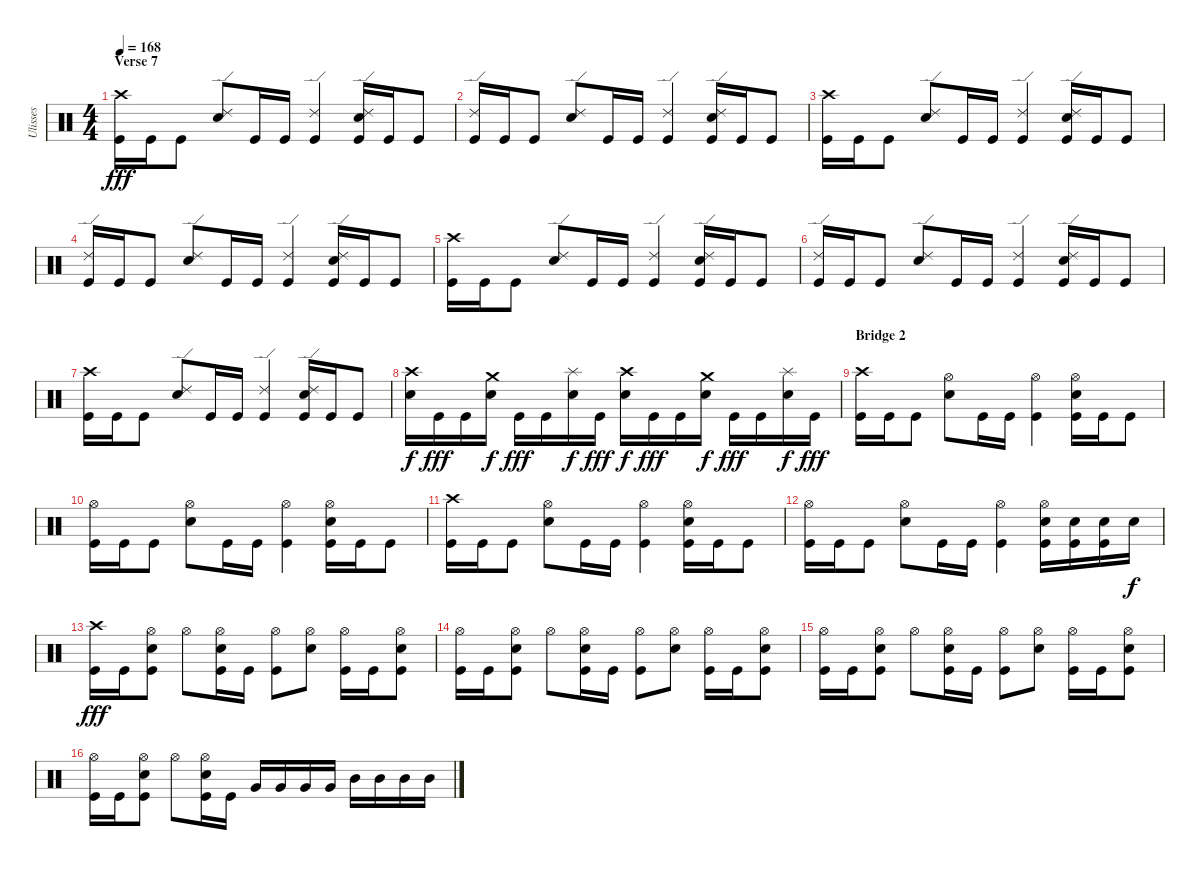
\track ("Ulisses" "Ulisses") {instrument percussion}
\staff {score}
\articulation defaults
\ts (4 4)
\section ("" "Verse 7")
\tempo 168
\clef neutral
\ks c
("Crash high (hit)" "Kick (hit)").16{dy fff} "Kick (hit)".16 "Kick (hit)".8 ("Ride (edge) 2" "Snare (hit) 2").8 "Kick (hit)".16 "Kick (hit)".16 ("Ride (edge) 2" "Kick (hit)").4 ("Ride (edge) 2" "Snare (hit) 2" "Kick (hit)").16 "Kick (hit)".16 "Kick (hit)".8 |
("Ride (edge) 2" "Kick (hit)").16 "Kick (hit)".16 "Kick (hit)".8 ("Ride (edge) 2" "Snare (hit) 2").8 "Kick (hit)".16 "Kick (hit)".16 ("Ride (edge) 2" "Kick (hit)").4 ("Ride (edge) 2" "Snare (hit) 2" "Kick (hit)").16 "Kick (hit)".16 "Kick (hit)".8 |
("Crash high (hit)" "Kick (hit)").16 "Kick (hit)".16 "Kick (hit)".8 ("Ride (edge) 2" "Snare (hit) 2").8 "Kick (hit)".16 "Kick (hit)".16 ("Ride (edge) 2" "Kick (hit)").4 ("Ride (edge) 2" "Snare (hit) 2" "Kick (hit)").16 "Kick (hit)".16 "Kick (hit)".8 |
("Ride (edge) 2" "Kick (hit)").16 "Kick (hit)".16 "Kick (hit)".8 ("Ride (edge) 2" "Snare (hit) 2").8 "Kick (hit)".16 "Kick (hit)".16 ("Ride (edge) 2" "Kick (hit)").4 ("Ride (edge) 2" "Snare (hit) 2" "Kick (hit)").16 "Kick (hit)".16 "Kick (hit)".8 |
("Crash high (hit)" "Kick (hit)").16 "Kick (hit)".16 "Kick (hit)".8 ("Ride (edge) 2" "Snare (hit) 2").8 "Kick (hit)".16 "Kick (hit)".16 ("Ride (edge) 2" "Kick (hit)").4 ("Ride (edge) 2" "Snare (hit) 2" "Kick (hit)").16 "Kick (hit)".16 "Kick (hit)".8 |
("Ride (edge) 2" "Kick (hit)").16 "Kick (hit)".16 "Kick (hit)".8 ("Ride (edge) 2" "Snare (hit) 2").8 "Kick (hit)".16 "Kick (hit)".16 ("Ride (edge) 2" "Kick (hit)").4 ("Ride (edge) 2" "Snare (hit) 2" "Kick (hit)").16 "Kick (hit)".16 "Kick (hit)".8 |
("Crash high (hit)" "Kick (hit)").16 "Kick (hit)".16 "Kick (hit)".8 ("Ride (edge) 2" "Snare (hit) 2").8 "Kick (hit)".16 "Kick (hit)".16 ("Ride (edge) 2" "Kick (hit)").4 ("Ride (edge) 2" "Snare (hit) 2" "Kick (hit)").16 "Kick (hit)".16 "Kick (hit)".8 |
("Crash high (hit)" "Snare (hit) 2").16{dy f} "Kick (hit)".16{dy fff} "Kick (hit)".16 ("Crash medium (hit)" "Snare (hit) 2").16{dy f} "Kick (hit)".16{dy fff} "Kick (hit)".16 ("Splash (hit)" "Snare (hit) 2").16{dy f} "Kick (hit)".16{dy fff} ("Crash high (hit)" "Snare (hit) 2").16{dy f} "Kick (hit)".16{dy fff} "Kick (hit)".16 ("Crash medium (hit)" "Snare (hit) 2").16{dy f} "Kick (hit)".16{dy fff} "Kick (hit)".16 ("Splash (hit)" "Snare (hit) 2").16{dy f} "Kick (hit)".16{dy fff} |
\section ("" "Bridge 2")
("Crash high (hit)" "Kick (hit)").16 "Kick (hit)".16 "Kick (hit)".8 ("Hi-Hat (open)" "Snare (hit) 2").8 "Kick (hit)".16 "Kick (hit)".16 ("Hi-Hat (open)" "Kick (hit)").4 ("Hi-Hat (open)" "Snare (hit) 2" "Kick (hit)").16 "Kick (hit)".16 "Kick (hit)".8 |
("Hi-Hat (open)" "Kick (hit)").16 "Kick (hit)".16 "Kick (hit)".8 ("Hi-Hat (open)" "Snare (hit) 2").8 "Kick (hit)".16 "Kick (hit)".16 ("Hi-Hat (open)" "Kick (hit)").4 ("Hi-Hat (open)" "Snare (hit) 2" "Kick (hit)").16 "Kick (hit)".16 "Kick (hit)".8 |
("Crash high (hit)" "Kick (hit)").16 "Kick (hit)".16 "Kick (hit)".8 ("Hi-Hat (open)" "Snare (hit) 2").8 "Kick (hit)".16 "Kick (hit)".16 ("Hi-Hat (open)" "Kick (hit)").4 ("Hi-Hat (open)" "Snare (hit) 2" "Kick (hit)").16 "Kick (hit)".16 "Kick (hit)".8 |
("Hi-Hat (open)" "Kick (hit)").16 "Kick (hit)".16 "Kick (hit)".8 ("Hi-Hat (open)" "Snare (hit) 2").8 "Kick (hit)".16 "Kick (hit)".16 ("Hi-Hat (open)" "Kick (hit)").4 ("Hi-Hat (open)" "Snare (hit) 2" "Kick (hit)").16 ("Snare (hit) 2" "Kick (hit)").16 ("Snare (hit) 2" "Kick (hit)").16 "Snare (hit) 2".16{dy f} |
("Crash high (hit)" "Kick (hit)").16{dy fff} "Kick (hit)".16 ("Hi-Hat (open)" "Snare (hit) 2" "Kick (hit)").8 "Hi-Hat (open)".8 ("Hi-Hat (open)" "Snare (hit) 2" "Kick (hit)").16 "Kick (hit)".16 ("Hi-Hat (open)" "Kick (hit)").8 ("Hi-Hat (open)" "Snare (hit) 2").8 ("Hi-Hat (open)" "Kick (hit)").16 "Kick (hit)".16 ("Hi-Hat (open)" "Snare (hit) 2" "Kick (hit)").8 |
("Hi-Hat (open)" "Kick (hit)").16 "Kick (hit)".16 ("Hi-Hat (open)" "Snare (hit) 2" "Kick (hit)").8 "Hi-Hat (open)".8 ("Hi-Hat (open)" "Snare (hit) 2" "Kick (hit)").16 "Kick (hit)".16 ("Hi-Hat (open)" "Kick (hit)").8 ("Hi-Hat (open)" "Snare (hit) 2").8 ("Hi-Hat (open)" "Kick (hit)").16 "Kick (hit)".16 ("Hi-Hat (open)" "Snare (hit) 2" "Kick (hit)").8 |
("Hi-Hat (open)" "Kick (hit)").16 "Kick (hit)".16 ("Hi-Hat (open)" "Snare (hit) 2" "Kick (hit)").8 "Hi-Hat (open)".8 ("Hi-Hat (open)" "Snare (hit) 2" "Kick (hit)").16 "Kick (hit)".16 ("Hi-Hat (open)" "Kick (hit)").8 ("Hi-Hat (open)" "Snare (hit) 2").8 ("Hi-Hat (open)" "Kick (hit)").16 "Kick (hit)".16 ("Hi-Hat (open)" "Snare (hit) 2" "Kick (hit)").8 |
("Hi-Hat (open)" "Kick (hit)").16 "Kick (hit)".16 ("Hi-Hat (open)" "Snare (hit) 2" "Kick (hit)").8 "Hi-Hat (open)".8 ("Hi-Hat (open)" "Snare (hit) 2" "Kick (hit)").16 "Kick (hit)".16 "Very Low Tom (hit)".16 "Very Low Tom (hit)".16 "Very Low Tom (hit)".16 "Very Low Tom (hit)".16 "Mid Tom (hit)".16 "Mid Tom (hit)".16 "Mid Tom (hit)".16 "Mid Tom (hit)".16
